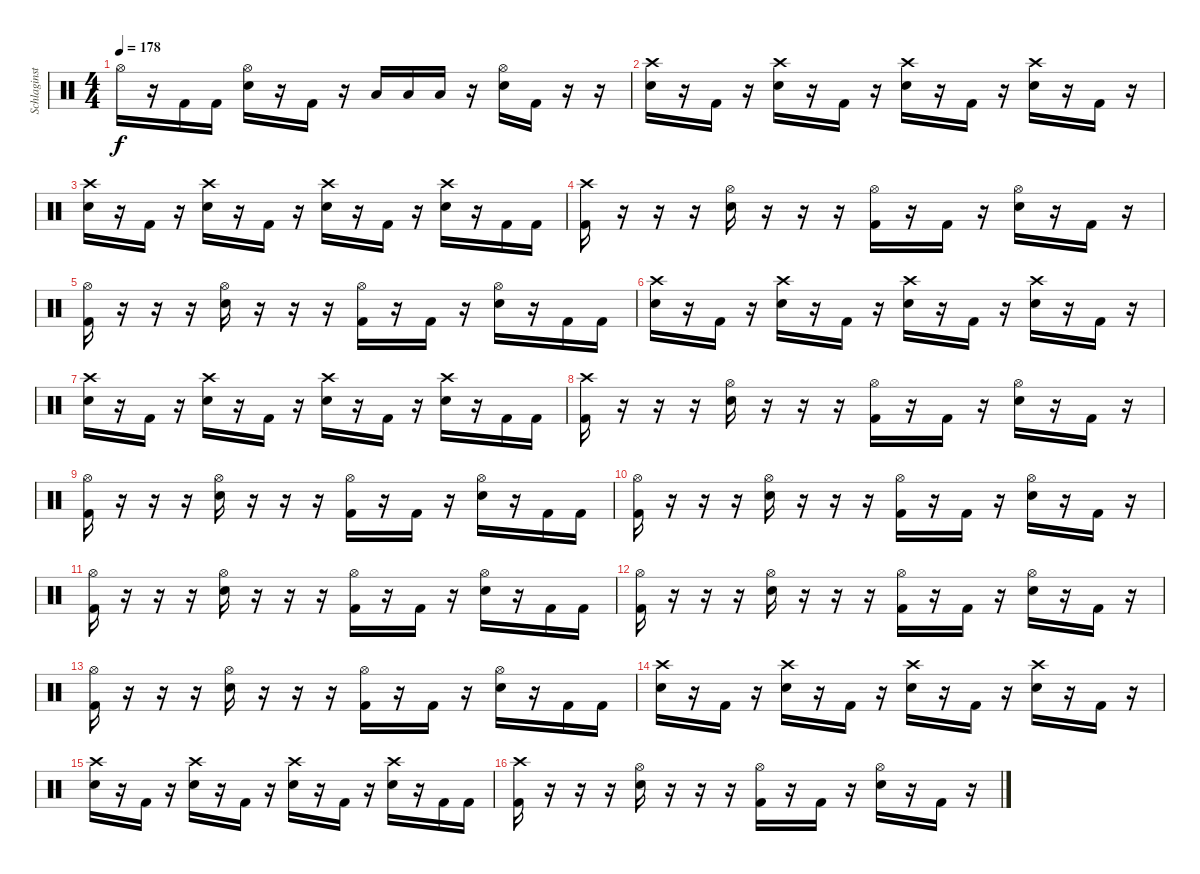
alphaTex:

\track ("Schlaginstrumente - Auswahl" "Schlaginst") {instrument percussion}
\staff {score}
\articulation defaults
\ts (4 4)
\tempo 178
\clef neutral
\ks c "Hi-Hat (open)".16{dy f}
r.16 "Kick (hit) 2".16 "Kick (hit) 2".16 ("Hi-Hat (open)" "Snare (hit) 2").16 r.16 "Kick (hit) 2".16 r.16 "Low Tom (hit)".16 "Low Tom (hit)".16 "Low Tom (hit)".16 r.16 ("Hi-Hat (open)" "Snare (hit) 2").16 "Kick (hit) 2".16 r.16 r.16 |
("Crash high (hit)" "Snare (hit) 2").16 r.16 "Kick (hit) 2".16 r.16 ("Crash high (hit)" "Snare (hit) 2").16 r.16 "Kick (hit) 2".16 r.16 ("Crash high (hit)" "Snare (hit) 2").16 r.16 "Kick (hit) 2".16 r.16 ("Crash high (hit)" "Snare (hit) 2").16 r.16 "Kick (hit) 2".16 r.16 |
("Crash high (hit)" "Snare (hit) 2").16 r.16 "Kick (hit) 2".16 r.16 ("Crash high (hit)" "Snare (hit) 2").16 r.16 "Kick (hit) 2".16 r.16 ("Crash high (hit)" "Snare (hit) 2").16 r.16 "Kick (hit) 2".16 r.16 ("Crash high (hit)" "Snare (hit) 2").16 r.16 "Kick (hit) 2".16 "Kick (hit) 2".16 |
("Crash high (hit)" "Kick (hit) 2").16 r.16 r.16 r.16 ("Hi-Hat (open)" "Snare (hit) 2").16 r.16 r.16 r.16 ("Hi-Hat (open)" "Kick (hit) 2").16 r.16 "Kick (hit) 2".16 r.16 ("Hi-Hat (open)" "Snare (hit) 2").16 r.16 "Kick (hit) 2".16 r.16 |
("Hi-Hat (open)" "Kick (hit) 2").16 r.16 r.16 r.16 ("Hi-Hat (open)" "Snare (hit) 2").16 r.16 r.16 r.16 ("Hi-Hat (open)" "Kick (hit) 2").16 r.16 "Kick (hit) 2".16 r.16 ("Hi-Hat (open)" "Snare (hit) 2").16 r.16 "Kick (hit) 2".16 "Kick (hit) 2".16 |
("Crash high (hit)" "Snare (hit) 2").16 r.16 "Kick (hit) 2".16 r.16 ("Crash high (hit)" "Snare (hit) 2").16 r.16 "Kick (hit) 2".16 r.16 ("Crash high (hit)" "Snare (hit) 2").16 r.16 "Kick (hit) 2".16 r.16 ("Crash high (hit)" "Snare (hit) 2").16 r.16 "Kick (hit) 2".16 r.16 |
("Crash high (hit)" "Snare (hit) 2").16 r.16 "Kick (hit) 2".16 r.16 ("Crash high (hit)" "Snare (hit) 2").16 r.16 "Kick (hit) 2".16 r.16 ("Crash high (hit)" "Snare (hit) 2").16 r.16 "Kick (hit) 2".16 r.16 ("Crash high (hit)" "Snare (hit) 2").16 r.16 "Kick (hit) 2".16 "Kick (hit) 2".16 |
("Crash high (hit)" "Kick (hit) 2").16 r.16 r.16 r.16 ("Hi-Hat (open)" "Snare (hit) 2").16 r.16 r.16 r.16 ("Hi-Hat (open)" "Kick (hit) 2").16 r.16 "Kick (hit) 2".16 r.16 ("Hi-Hat (open)" "Snare (hit) 2").16 r.16 "Kick (hit) 2".16 r.16 |
("Hi-Hat (open)" "Kick (hit) 2").16 r.16 r.16 r.16 ("Hi-Hat (open)" "Snare (hit) 2").16 r.16 r.16 r.16 ("Hi-Hat (open)" "Kick (hit) 2").16 r.16 "Kick (hit) 2".16 r.16 ("Hi-Hat (open)" "Snare (hit) 2").16 r.16 "Kick (hit) 2".16 "Kick (hit) 2".16 |
("Hi-Hat (open)" "Kick (hit) 2").16 r.16 r.16 r.16 ("Hi-Hat (open)" "Snare (hit) 2").16 r.16 r.16 r.16 ("Hi-Hat (open)" "Kick (hit) 2").16 r.16 "Kick (hit) 2".16 r.16 ("Hi-Hat (open)" "Snare (hit) 2").16 r.16 "Kick (hit) 2".16 r.16 |
("Hi-Hat (open)" "Kick (hit) 2").16 r.16 r.16 r.16 ("Hi-Hat (open)" "Snare (hit) 2").16 r.16 r.16 r.16 ("Hi-Hat (open)" "Kick (hit) 2").16 r.16 "Kick (hit) 2".16 r.16 ("Hi-Hat (open)" "Snare (hit) 2").16 r.16 "Kick (hit) 2".16 "Kick (hit) 2".16 |
("Hi-Hat (open)" "Kick (hit) 2").16 r.16 r.16 r.16 ("Hi-Hat (open)" "Snare (hit) 2").16 r.16 r.16 r.16 ("Hi-Hat (open)" "Kick (hit) 2").16 r.16 "Kick (hit) 2".16 r.16 ("Hi-Hat (open)" "Snare (hit) 2").16 r.16 "Kick (hit) 2".16 r.16 |
("Hi-Hat (open)" "Kick (hit) 2").16 r.16 r.16 r.16 ("Hi-Hat (open)" "Snare (hit) 2").16 r.16 r.16 r.16 ("Hi-Hat (open)" "Kick (hit) 2").16 r.16 "Kick (hit) 2".16 r.16 ("Hi-Hat (open)" "Snare (hit) 2").16 r.16 "Kick (hit) 2".16 "Kick (hit) 2".16 |
("Crash high (hit)" "Snare (hit) 2").16 r.16 "Kick (hit) 2".16 r.16 ("Crash high (hit)" "Snare (hit) 2").16 r.16 "Kick (hit) 2".16 r.16 ("Crash high (hit)" "Snare (hit) 2").16 r.16 "Kick (hit) 2".16 r.16 ("Crash high (hit)" "Snare (hit) 2").16 r.16 "Kick (hit) 2".16 r.16 |
("Crash high (hit)" "Snare (hit) 2").16 r.16 "Kick (hit) 2".16 r.16 ("Crash high (hit)" "Snare (hit) 2").16 r.16 "Kick (hit) 2".16 r.16 ("Crash high (hit)" "Snare (hit) 2").16 r.16 "Kick (hit) 2".16 r.16 ("Crash high (hit)" "Snare (hit) 2").16 r.16 "Kick (hit) 2".16 "Kick (hit) 2".16 |
("Crash high (hit)" "Kick (hit) 2").16 r.16 r.16 r.16 ("Hi-Hat (open)" "Snare (hit) 2").16 r.16 r.16 r.16 ("Hi-Hat (open)" "Kick (hit) 2").16 r.16 "Kick (hit) 2".16 r.16 ("Hi-Hat (open)" "Snare (hit) 2").16 r.16 "Kick (hit) 2".16 r.16
